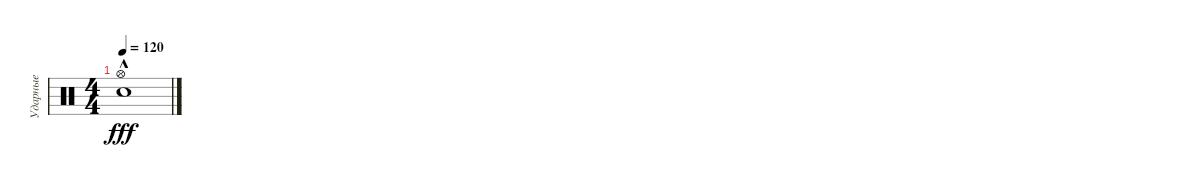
\track ("Ударные" "Ударные") {instrument percussion}
\staff {score}
\articulation defaults
\ts (4 4)
\tempo 120
\clef neutral
\ks c
("Snare (hit) 2"{hac} "Hi-Hat (open)"{hac}).1{dy fff}
